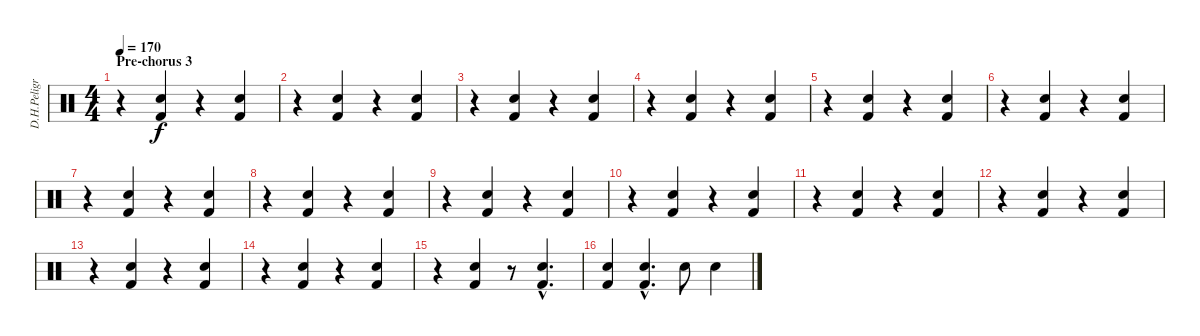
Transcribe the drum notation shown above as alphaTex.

\track ("D.H.Peligro" "D.H.Peligr") {instrument percussion}
\staff {score}
\articulation defaults
\ts (4 4)
\section ("" "Pre-chorus 3")
\tempo 170
\clef neutral
\ks c
r.4{dy f} ("Electric Snare (hit)" "Kick (hit) 2").4 r.4 ("Electric Snare (hit)" "Kick (hit) 2").4 |
r.4 ("Electric Snare (hit)" "Kick (hit) 2").4 r.4 ("Electric Snare (hit)" "Kick (hit) 2").4 |
r.4 ("Electric Snare (hit)" "Kick (hit) 2").4 r.4 ("Electric Snare (hit)" "Kick (hit) 2").4 |
r.4 ("Electric Snare (hit)" "Kick (hit) 2").4 r.4 ("Electric Snare (hit)" "Kick (hit) 2").4 |
r.4 ("Electric Snare (hit)" "Kick (hit) 2").4 r.4 ("Electric Snare (hit)" "Kick (hit) 2").4 |
r.4 ("Electric Snare (hit)" "Kick (hit) 2").4 r.4 ("Electric Snare (hit)" "Kick (hit) 2").4 |
r.4 ("Electric Snare (hit)" "Kick (hit) 2").4 r.4 ("Electric Snare (hit)" "Kick (hit) 2").4 |
r.4 ("Electric Snare (hit)" "Kick (hit) 2").4 r.4 ("Electric Snare (hit)" "Kick (hit) 2").4 |
r.4 ("Electric Snare (hit)" "Kick (hit) 2").4 r.4 ("Electric Snare (hit)" "Kick (hit) 2").4 |
r.4 ("Electric Snare (hit)" "Kick (hit) 2").4 r.4 ("Electric Snare (hit)" "Kick (hit) 2").4 |
r.4 ("Electric Snare (hit)" "Kick (hit) 2").4 r.4 ("Electric Snare (hit)" "Kick (hit) 2").4 |
r.4 ("Electric Snare (hit)" "Kick (hit) 2").4 r.4 ("Electric Snare (hit)" "Kick (hit) 2").4 |
r.4 ("Electric Snare (hit)" "Kick (hit) 2").4 r.4 ("Electric Snare (hit)" "Kick (hit) 2").4 |
r.4 ("Electric Snare (hit)" "Kick (hit) 2").4 r.4 ("Electric Snare (hit)" "Kick (hit) 2").4 |
r.4 ("Electric Snare (hit)" "Kick (hit) 2").4 r.8 ("Electric Snare (hit)"{hac} "Kick (hit) 2"{hac}).4{d} |
("Electric Snare (hit)" "Kick (hit) 2").4 ("Electric Snare (hit)"{hac} "Kick (hit) 2"{hac}).4{d} "Electric Snare (hit)".8 "Electric Snare (hit)".4
